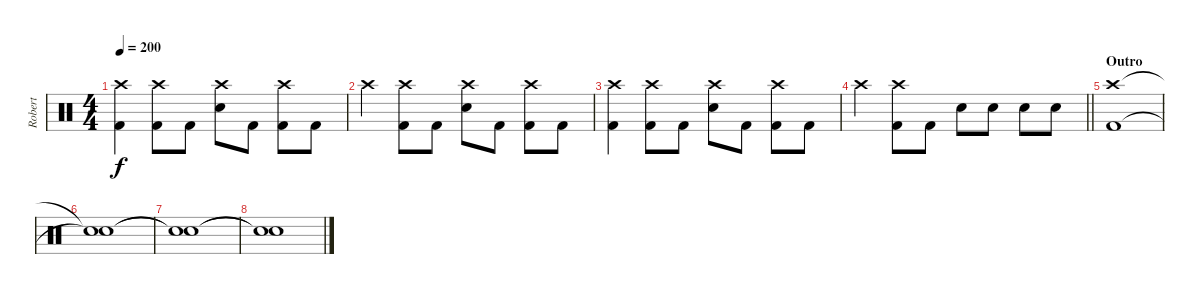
\track ("Robert" "Robert") {instrument percussion}
\staff {score}
\articulation defaults
\ts (4 4)
\tempo 200
\clef neutral
\ks c
("Crash high (hit)" "Kick (hit) 2").4{dy f} ("Crash high (hit)" "Kick (hit) 2").8 "Kick (hit) 2".8 ("Crash high (hit)" "Electric Snare (hit)").8 "Kick (hit) 2".8 ("Crash high (hit)" "Kick (hit) 2").8 "Kick (hit) 2".8 |
"Crash high (hit)".4 ("Crash high (hit)" "Kick (hit) 2").8 "Kick (hit) 2".8 ("Crash high (hit)" "Electric Snare (hit)").8 "Kick (hit) 2".8 ("Crash high (hit)" "Kick (hit) 2").8 "Kick (hit) 2".8 |
("Crash high (hit)" "Kick (hit) 2").4 ("Crash high (hit)" "Kick (hit) 2").8 "Kick (hit) 2".8 ("Crash high (hit)" "Electric Snare (hit)").8 "Kick (hit) 2".8 ("Crash high (hit)" "Kick (hit) 2").8 "Kick (hit) 2".8 |
\barLineRight lightlight "Crash high (hit)".4
("Crash high (hit)" "Kick (hit) 2").8 "Kick (hit) 2".8 "Electric Snare (hit)".8 "Electric Snare (hit)".8 "Electric Snare (hit)".8 "Electric Snare (hit)".8 |
\section ("" "Outro")
("Crash high (hit)" "Kick (hit) 2").1 |
("Snare (hit)"{t} "Snare (hit)"{t}).1 |
("Snare (hit)"{t} "Snare (hit)"{t}).1 |
("Snare (hit)"{t} "Snare (hit)"{t}).1
